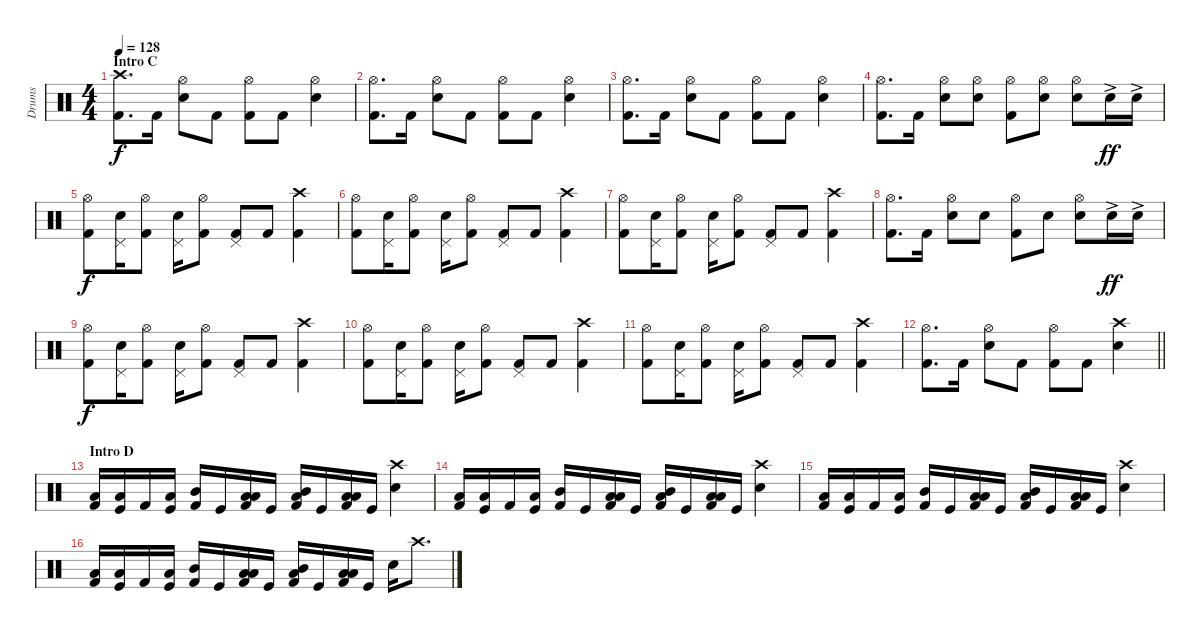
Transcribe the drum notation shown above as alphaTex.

\track ("Drums" "Drums") {instrument percussion}
\staff {score}
\articulation defaults
\ts (4 4)
\section ("" "Intro C")
\tempo 128
\clef neutral
\ks c
("Crash high (hit)" "Kick (hit) 2").8{d dy f} "Kick (hit) 2".16 ("Hi-Hat (open)" "Electric Snare (hit)").8 "Kick (hit) 2".8 ("Hi-Hat (open)" "Kick (hit) 2").8 "Kick (hit) 2".8 ("Hi-Hat (open)" "Electric Snare (hit)").4 |
("Hi-Hat (open)" "Kick (hit) 2").8{d} "Kick (hit) 2".16 ("Hi-Hat (open)" "Electric Snare (hit)").8 "Kick (hit) 2".8 ("Hi-Hat (open)" "Kick (hit) 2").8 "Kick (hit) 2".8 ("Hi-Hat (open)" "Electric Snare (hit)").4 |
("Hi-Hat (open)" "Kick (hit) 2").8{d} "Kick (hit) 2".16 ("Hi-Hat (open)" "Electric Snare (hit)").8 "Kick (hit) 2".8 ("Hi-Hat (open)" "Kick (hit) 2").8 "Kick (hit) 2".8 ("Hi-Hat (open)" "Electric Snare (hit)").4 |
("Hi-Hat (open)" "Kick (hit) 2").8{d} "Kick (hit) 2".16 ("Hi-Hat (open)" "Electric Snare (hit)").8 ("Hi-Hat (open)" "Electric Snare (hit)").8 ("Hi-Hat (open)" "Kick (hit) 2").8 ("Hi-Hat (open)" "Electric Snare (hit)").8 ("Hi-Hat (open)" "Electric Snare (hit)").8 "Electric Snare (hit)"{ac}.16{dy ff} "Electric Snare (hit)"{ac}.16 |
("Hi-Hat (open)" "Kick (hit) 2").8{dy f} ("Pedal Hi-Hat (hit)" "Electric Snare (hit)").16 ("Hi-Hat (open)" "Kick (hit) 2").8 ("Pedal Hi-Hat (hit)" "Electric Snare (hit)").16 ("Hi-Hat (open)" "Kick (hit) 2").8 ("Pedal Hi-Hat (hit)" "Kick (hit) 2").8 "Kick (hit) 2".8 ("Crash high (hit)" "Kick (hit) 2").4 |
("Hi-Hat (open)" "Kick (hit) 2").8 ("Pedal Hi-Hat (hit)" "Electric Snare (hit)").16 ("Hi-Hat (open)" "Kick (hit) 2").8 ("Pedal Hi-Hat (hit)" "Electric Snare (hit)").16 ("Hi-Hat (open)" "Kick (hit) 2").8 ("Pedal Hi-Hat (hit)" "Kick (hit) 2").8 "Kick (hit) 2".8 ("Crash high (hit)" "Kick (hit) 2").4 |
("Hi-Hat (open)" "Kick (hit) 2").8 ("Pedal Hi-Hat (hit)" "Electric Snare (hit)").16 ("Hi-Hat (open)" "Kick (hit) 2").8 ("Pedal Hi-Hat (hit)" "Electric Snare (hit)").16 ("Hi-Hat (open)" "Kick (hit) 2").8 ("Pedal Hi-Hat (hit)" "Kick (hit) 2").8 "Kick (hit) 2".8 ("Crash high (hit)" "Kick (hit) 2").4 |
("Hi-Hat (open)" "Kick (hit) 2").8{d} "Kick (hit) 2".16 ("Hi-Hat (open)" "Electric Snare (hit)").8 "Electric Snare (hit)".8 ("Hi-Hat (open)" "Kick (hit) 2").8 "Electric Snare (hit)".8 ("Hi-Hat (open)" "Electric Snare (hit)").8 "Electric Snare (hit)"{ac}.16{dy ff} "Electric Snare (hit)"{ac}.16 |
("Hi-Hat (open)" "Kick (hit) 2").8{dy f} ("Pedal Hi-Hat (hit)" "Electric Snare (hit)").16 ("Hi-Hat (open)" "Kick (hit) 2").8 ("Pedal Hi-Hat (hit)" "Electric Snare (hit)").16 ("Hi-Hat (open)" "Kick (hit) 2").8 ("Pedal Hi-Hat (hit)" "Kick (hit) 2").8 "Kick (hit) 2".8 ("Crash high (hit)" "Kick (hit) 2").4 |
("Hi-Hat (open)" "Kick (hit) 2").8 ("Pedal Hi-Hat (hit)" "Electric Snare (hit)").16 ("Hi-Hat (open)" "Kick (hit) 2").8 ("Pedal Hi-Hat (hit)" "Electric Snare (hit)").16 ("Hi-Hat (open)" "Kick (hit) 2").8 ("Pedal Hi-Hat (hit)" "Kick (hit) 2").8 "Kick (hit) 2".8 ("Crash high (hit)" "Kick (hit) 2").4 |
("Hi-Hat (open)" "Kick (hit) 2").8 ("Pedal Hi-Hat (hit)" "Electric Snare (hit)").16 ("Hi-Hat (open)" "Kick (hit) 2").8 ("Pedal Hi-Hat (hit)" "Electric Snare (hit)").16 ("Hi-Hat (open)" "Kick (hit) 2").8 ("Pedal Hi-Hat (hit)" "Kick (hit) 2").8 "Kick (hit) 2".8 ("Crash high (hit)" "Kick (hit) 2").4 |
\barLineRight lightlight
("Hi-Hat (open)" "Kick (hit) 2").8{d} "Kick (hit) 2".16 ("Hi-Hat (open)" "Electric Snare (hit)").8 "Kick (hit) 2".8 ("Hi-Hat (open)" "Kick (hit) 2").8 "Kick (hit) 2".8 ("Crash high (hit)" "Electric Snare (hit)").4 |
\section ("" "Intro D")
("Low Floor Tom (hit)" "Kick (hit) 2").16 ("Low Tom (hit)" "Kick (hit)").16 "Kick (hit) 2".16 ("Low Floor Tom (hit)" "Kick (hit)").16 ("Mid Tom (hit)" "Kick (hit) 2").16 "Kick (hit)".16 ("Low Tom (hit)" "Low Floor Tom (hit)" "Kick (hit) 2").16 "Kick (hit)".16 ("Mid Tom (hit)" "Low Tom (hit)" "Kick (hit) 2").16 "Kick (hit)".16 ("Low Tom (hit)" "Low Floor Tom (hit)" "Kick (hit) 2").16 "Kick (hit)".16 ("Crash high (hit)" "Electric Snare (hit)").4 |
("Low Floor Tom (hit)" "Kick (hit) 2").16 ("Low Tom (hit)" "Kick (hit)").16 "Kick (hit) 2".16 ("Low Floor Tom (hit)" "Kick (hit)").16 ("Mid Tom (hit)" "Kick (hit) 2").16 "Kick (hit)".16 ("Low Tom (hit)" "Low Floor Tom (hit)" "Kick (hit) 2").16 "Kick (hit)".16 ("Mid Tom (hit)" "Low Tom (hit)" "Kick (hit) 2").16 "Kick (hit)".16 ("Low Tom (hit)" "Low Floor Tom (hit)" "Kick (hit) 2").16 "Kick (hit)".16 ("Crash high (hit)" "Electric Snare (hit)").4 |
("Low Floor Tom (hit)" "Kick (hit) 2").16 ("Low Tom (hit)" "Kick (hit)").16 "Kick (hit) 2".16 ("Low Floor Tom (hit)" "Kick (hit)").16 ("Mid Tom (hit)" "Kick (hit) 2").16 "Kick (hit)".16 ("Low Tom (hit)" "Low Floor Tom (hit)" "Kick (hit) 2").16 "Kick (hit)".16 ("Mid Tom (hit)" "Low Tom (hit)" "Kick (hit) 2").16 "Kick (hit)".16 ("Low Tom (hit)" "Low Floor Tom (hit)" "Kick (hit) 2").16 "Kick (hit)".16 ("Crash high (hit)" "Electric Snare (hit)").4 |
("Low Floor Tom (hit)" "Kick (hit) 2").16 ("Low Tom (hit)" "Kick (hit)").16 "Kick (hit) 2".16 ("Low Floor Tom (hit)" "Kick (hit)").16 ("Mid Tom (hit)" "Kick (hit) 2").16 "Kick (hit)".16 ("Low Tom (hit)" "Low Floor Tom (hit)" "Kick (hit) 2").16 "Kick (hit)".16 ("Mid Tom (hit)" "Low Tom (hit)" "Kick (hit) 2").16 "Kick (hit)".16 ("Low Tom (hit)" "Low Floor Tom (hit)" "Kick (hit) 2").16 "Kick (hit)".16 "Electric Snare (hit)".16 "Crash high (hit)".8{d}
